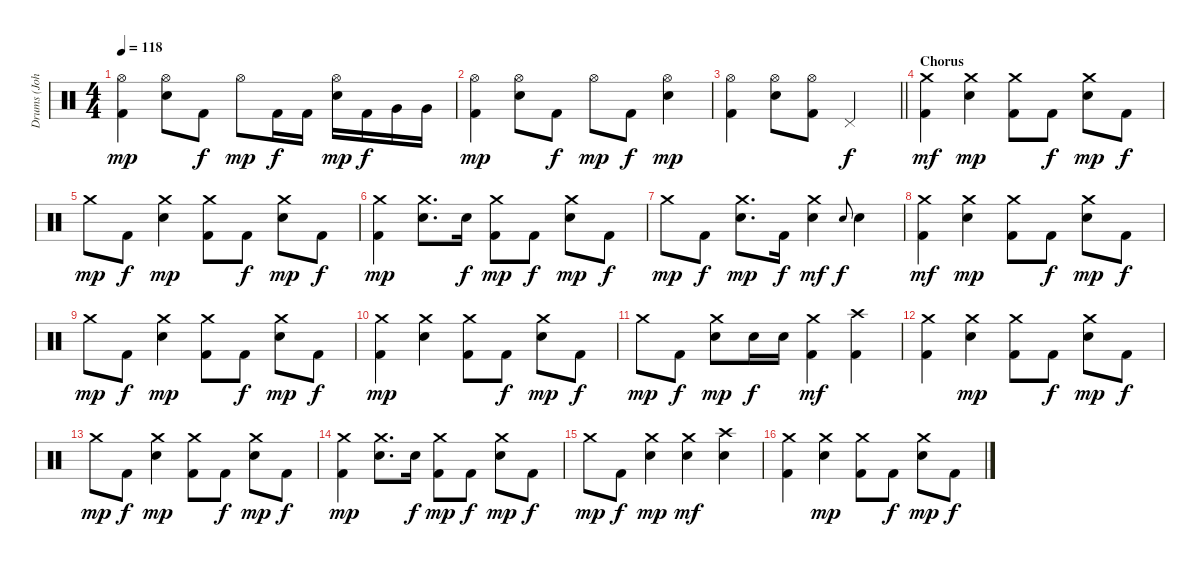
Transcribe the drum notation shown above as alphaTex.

\track ("Drums (John Fred Young)" "Drums (Joh") {instrument percussion}
\staff {score}
\articulation defaults
\ts (4 4)
\tempo 118
\clef neutral
\ks c
("Hi-Hat (open)" "Kick (hit) 2").4{dy mp} ("Hi-Hat (open)" "Electric Snare (hit)").8 "Kick (hit) 2".8{dy f} "Hi-Hat (open)".8{dy mp} "Kick (hit) 2".16{dy f} "Kick (hit) 2".16 ("Hi-Hat (open)" "Electric Snare (hit)").16{dy mp} "Kick (hit) 2".16{dy f} "Very Low Tom (hit)".16 "Very Low Tom (hit)".16 |
("Hi-Hat (open)" "Kick (hit) 2").4{dy mp} ("Hi-Hat (open)" "Electric Snare (hit)").8 "Kick (hit) 2".8{dy f} "Hi-Hat (open)".8{dy mp} "Kick (hit) 2".8{dy f} ("Hi-Hat (open)" "Electric Snare (hit)").4{dy mp} |
\barLineRight lightlight
("Hi-Hat (open)" "Kick (hit) 2").4 ("Hi-Hat (open)" "Electric Snare (hit)").8 ("Hi-Hat (open)" "Kick (hit) 2").8 "Pedal Hi-Hat (hit)".2{dy f} |
\section ("" "Chorus")
("Crash medium (hit)" "Kick (hit) 2").4{dy mf} ("Crash medium (hit)" "Electric Snare (hit)").4{dy mp} ("Crash medium (hit)" "Kick (hit) 2").8 "Kick (hit) 2".8{dy f} ("Crash medium (hit)" "Electric Snare (hit)").8{dy mp} "Kick (hit) 2".8{dy f} |
"Crash medium (hit)".8{dy mp} "Kick (hit) 2".8{dy f} ("Crash medium (hit)" "Electric Snare (hit)").4{dy mp} ("Crash medium (hit)" "Kick (hit) 2").8 "Kick (hit) 2".8{dy f} ("Crash medium (hit)" "Electric Snare (hit)").8{dy mp} "Kick (hit) 2".8{dy f} |
("Crash medium (hit)" "Kick (hit) 2").4{dy mp} ("Crash medium (hit)" "Electric Snare (hit)").8{d} "Electric Snare (hit)".16{dy f} ("Crash medium (hit)" "Kick (hit) 2").8{dy mp} "Kick (hit) 2".8{dy f} ("Crash medium (hit)" "Electric Snare (hit)").8{dy mp} "Kick (hit) 2".8{dy f} |
"Crash medium (hit)".8{dy mp} "Kick (hit) 2".8{dy f} ("Crash medium (hit)" "Electric Snare (hit)").8{d dy mp} "Kick (hit) 2".16{dy f} ("Crash medium (hit)" "Electric Snare (hit)").4{dy mf} "Electric Snare (hit)".8{gr onbeat dy f} "Electric Snare (hit)".4 |
("Crash medium (hit)" "Kick (hit) 2").4{dy mf} ("Crash medium (hit)" "Electric Snare (hit)").4{dy mp} ("Crash medium (hit)" "Kick (hit) 2").8 "Kick (hit) 2".8{dy f} ("Crash medium (hit)" "Electric Snare (hit)").8{dy mp} "Kick (hit) 2".8{dy f} |
"Crash medium (hit)".8{dy mp} "Kick (hit) 2".8{dy f} ("Crash medium (hit)" "Electric Snare (hit)").4{dy mp} ("Crash medium (hit)" "Kick (hit) 2").8 "Kick (hit) 2".8{dy f} ("Crash medium (hit)" "Electric Snare (hit)").8{dy mp} "Kick (hit) 2".8{dy f} |
("Crash medium (hit)" "Kick (hit) 2").4{dy mp} ("Crash medium (hit)" "Electric Snare (hit)").4 ("Crash medium (hit)" "Kick (hit) 2").8 "Kick (hit) 2".8{dy f} ("Crash medium (hit)" "Electric Snare (hit)").8{dy mp} "Kick (hit) 2".8{dy f} |
"Crash medium (hit)".8{dy mp} "Kick (hit) 2".8{dy f} ("Crash medium (hit)" "Electric Snare (hit)").8{dy mp} "Electric Snare (hit)".16{dy f} "Electric Snare (hit)".16 ("Crash medium (hit)" "Kick (hit) 2").4{dy mf} ("Crash high (hit)" "Kick (hit) 2").4 |
("Crash medium (hit)" "Kick (hit) 2").4 ("Crash medium (hit)" "Electric Snare (hit)").4{dy mp} ("Crash medium (hit)" "Kick (hit) 2").8 "Kick (hit) 2".8{dy f} ("Crash medium (hit)" "Electric Snare (hit)").8{dy mp} "Kick (hit) 2".8{dy f} |
"Crash medium (hit)".8{dy mp} "Kick (hit) 2".8{dy f} ("Crash medium (hit)" "Electric Snare (hit)").4{dy mp} ("Crash medium (hit)" "Kick (hit) 2").8 "Kick (hit) 2".8{dy f} ("Crash medium (hit)" "Electric Snare (hit)").8{dy mp} "Kick (hit) 2".8{dy f} |
("Crash medium (hit)" "Kick (hit) 2").4{dy mp} ("Crash medium (hit)" "Electric Snare (hit)").8{d} "Electric Snare (hit)".16{dy f} ("Crash medium (hit)" "Kick (hit) 2").8{dy mp} "Kick (hit) 2".8{dy f} ("Crash medium (hit)" "Electric Snare (hit)").8{dy mp} "Kick (hit) 2".8{dy f} |
"Crash medium (hit)".8{dy mp} "Kick (hit) 2".8{dy f} ("Crash medium (hit)" "Electric Snare (hit)").4{dy mp} ("Crash medium (hit)" "Electric Snare (hit)").4{dy mf} ("Crash high (hit)" "Electric Snare (hit)").4 |
("Crash medium (hit)" "Kick (hit) 2").4 ("Crash medium (hit)" "Electric Snare (hit)").4{dy mp} ("Crash medium (hit)" "Kick (hit) 2").8 "Kick (hit) 2".8{dy f} ("Crash medium (hit)" "Electric Snare (hit)").8{dy mp} "Kick (hit) 2".8{dy f}
